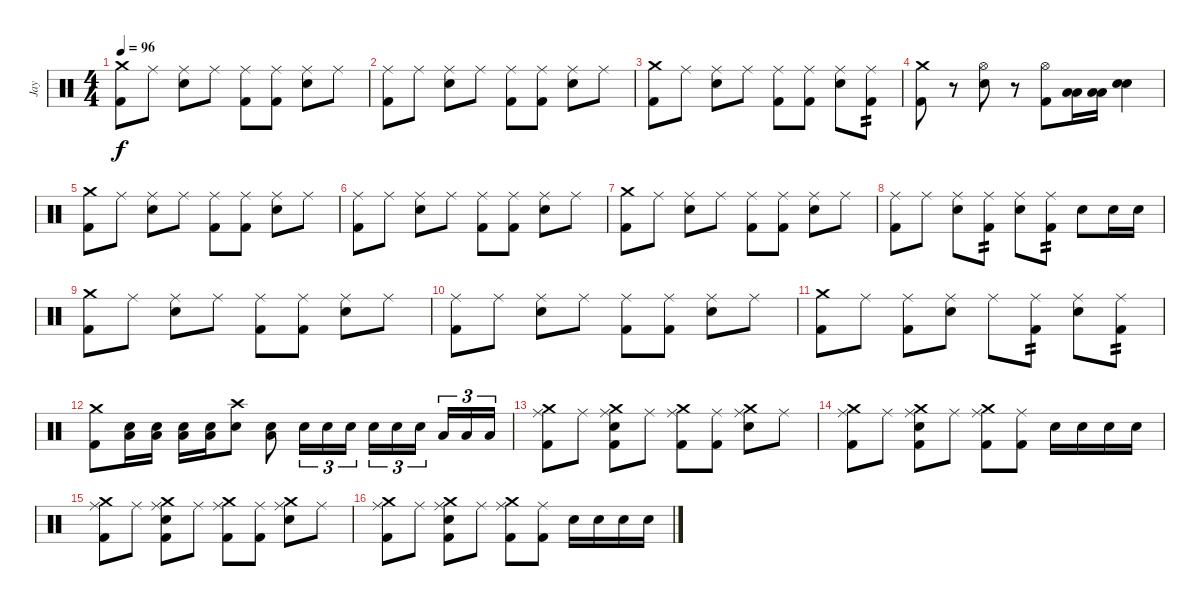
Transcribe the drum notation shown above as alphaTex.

\track ("Jay" "Jay") {instrument percussion}
\staff {score}
\articulation defaults
\ts (4 4)
\tempo 96
\clef neutral
\ks c
("Crash medium (hit)" "Kick (hit) 2").8{dy f} "Ride (middle)".8 ("Ride (middle)" "Electric Snare (hit)").8 "Ride (middle)".8 ("Ride (middle)" "Kick (hit) 2").8 ("Ride (middle)" "Kick (hit) 2").8 ("Ride (middle)" "Electric Snare (hit)").8 "Ride (middle)".8 |
("Ride (middle)" "Kick (hit) 2").8 "Ride (middle)".8 ("Ride (middle)" "Electric Snare (hit)").8 "Ride (middle)".8 ("Ride (middle)" "Kick (hit) 2").8 ("Ride (middle)" "Kick (hit) 2").8 ("Ride (middle)" "Electric Snare (hit)").8 "Ride (middle)".8 |
("Crash medium (hit)" "Kick (hit) 2").8 "Ride (middle)".8 ("Ride (middle)" "Electric Snare (hit)").8 "Ride (middle)".8 ("Ride (middle)" "Kick (hit) 2").8 ("Ride (middle)" "Kick (hit) 2").8 ("Ride (middle)" "Electric Snare (hit)").8 ("Ride (middle)" "Kick (hit) 2").8{tp 2} |
("Crash medium (hit)" "Kick (hit) 2").8 r.8 ("Hi-Hat (open)" "Electric Snare (hit)").8 r.8 ("Hi-Hat (open)" "Kick (hit) 2").8 ("Low Tom (hit)" "Low Tom (hit)").16 ("Low Tom (hit)" "Low Tom (hit)").16 ("Electric Snare (hit)" "Electric Snare (hit)").4 |
("Crash medium (hit)" "Kick (hit) 2").8 "Ride (middle)".8 ("Ride (middle)" "Electric Snare (hit)").8 "Ride (middle)".8 ("Ride (middle)" "Kick (hit) 2").8 ("Ride (middle)" "Kick (hit) 2").8 ("Ride (middle)" "Electric Snare (hit)").8 "Ride (middle)".8 |
("Ride (middle)" "Kick (hit) 2").8 "Ride (middle)".8 ("Ride (middle)" "Electric Snare (hit)").8 "Ride (middle)".8 ("Ride (middle)" "Kick (hit) 2").8 ("Ride (middle)" "Kick (hit) 2").8 ("Ride (middle)" "Electric Snare (hit)").8 "Ride (middle)".8 |
("Crash medium (hit)" "Kick (hit) 2").8 "Ride (middle)".8 ("Ride (middle)" "Electric Snare (hit)").8 "Ride (middle)".8 ("Ride (middle)" "Kick (hit) 2").8 ("Ride (middle)" "Kick (hit) 2").8 ("Ride (middle)" "Electric Snare (hit)").8 "Ride (middle)".8 |
("Ride (middle)" "Kick (hit) 2").8 "Ride (middle)".8 ("Ride (middle)" "Electric Snare (hit)").8 ("Ride (middle)" "Kick (hit) 2").8{tp 2} ("Ride (middle)" "Electric Snare (hit)").8 ("Ride (middle)" "Kick (hit) 2").8{tp 2} "Electric Snare (hit)".8 "Electric Snare (hit)".16 "Electric Snare (hit)".16 |
("Crash medium (hit)" "Kick (hit) 2").8 "Ride (middle)".8 ("Ride (middle)" "Electric Snare (hit)").8 "Ride (middle)".8 ("Ride (middle)" "Kick (hit) 2").8 ("Ride (middle)" "Kick (hit) 2").8 ("Ride (middle)" "Electric Snare (hit)").8 "Ride (middle)".8 |
("Ride (middle)" "Kick (hit) 2").8 "Ride (middle)".8 ("Ride (middle)" "Electric Snare (hit)").8 "Ride (middle)".8 ("Ride (middle)" "Kick (hit) 2").8 ("Ride (middle)" "Kick (hit) 2").8 ("Ride (middle)" "Electric Snare (hit)").8 "Ride (middle)".8 |
("Crash medium (hit)" "Kick (hit) 2").8 "Ride (middle)".8 ("Ride (middle)" "Kick (hit) 2").8 ("Ride (middle)" "Electric Snare (hit)").8 "Ride (middle)".8 ("Ride (middle)" "Kick (hit) 2").8{tp 2} ("Ride (middle)" "Electric Snare (hit)").8 ("Ride (middle)" "Kick (hit) 2").8{tp 2} |
("Crash medium (hit)" "Kick (hit) 2").8 ("Low Tom (hit)" "Electric Snare (hit)").16 ("Low Tom (hit)" "Electric Snare (hit)").16 ("Low Tom (hit)" "Electric Snare (hit)").16 ("Low Tom (hit)" "Electric Snare (hit)").16 ("Crash high (hit)" "Electric Snare (hit)").8 ("Low Tom (hit)" "Electric Snare (hit)").8 "Electric Snare (hit)".16{tu (3 2)} "Electric Snare (hit)".16{tu (3 2)} "Electric Snare (hit)".16{tu (3 2)} "Electric Snare (hit)".16{tu (3 2)} "Electric Snare (hit)".16{tu (3 2)} "Electric Snare (hit)".16{tu (3 2) beam splitsecondary} "Low Tom (hit)".16{tu (3 2)} "Low Tom (hit)".16{tu (3 2)} "Low Tom (hit)".16{tu (3 2)} |
("Crash medium (hit)" "Ride (middle)" "Kick (hit) 2").8 "Ride (middle)".8 ("Crash medium (hit)" "Electric Snare (hit)" "Kick (hit) 2" "Ride (middle)").8 "Ride (middle)".8 ("Crash medium (hit)" "Ride (middle)" "Kick (hit) 2").8 ("Ride (middle)" "Kick (hit) 2").8 ("Crash medium (hit)" "Ride (middle)" "Electric Snare (hit)").8 "Ride (middle)".8 |
("Crash medium (hit)" "Ride (middle)" "Kick (hit) 2").8 "Ride (middle)".8 ("Crash medium (hit)" "Electric Snare (hit)" "Kick (hit) 2" "Ride (middle)").8 "Ride (middle)".8 ("Crash medium (hit)" "Ride (middle)" "Kick (hit) 2").8 ("Ride (middle)" "Kick (hit) 2").8 "Electric Snare (hit)".16 "Electric Snare (hit)".16 "Electric Snare (hit)".16 "Electric Snare (hit)".16 |
("Crash medium (hit)" "Ride (middle)" "Kick (hit) 2").8 "Ride (middle)".8 ("Crash medium (hit)" "Electric Snare (hit)" "Kick (hit) 2" "Ride (middle)").8 "Ride (middle)".8 ("Crash medium (hit)" "Ride (middle)" "Kick (hit) 2").8 ("Ride (middle)" "Kick (hit) 2").8 ("Crash medium (hit)" "Ride (middle)" "Electric Snare (hit)").8 "Ride (middle)".8 |
("Crash medium (hit)" "Ride (middle)" "Kick (hit) 2").8 "Ride (middle)".8 ("Crash medium (hit)" "Electric Snare (hit)" "Kick (hit) 2" "Ride (middle)").8 "Ride (middle)".8 ("Crash medium (hit)" "Ride (middle)" "Kick (hit) 2").8 ("Ride (middle)" "Kick (hit) 2").8 "Electric Snare (hit)".16 "Electric Snare (hit)".16 "Electric Snare (hit)".16 "Electric Snare (hit)".16
